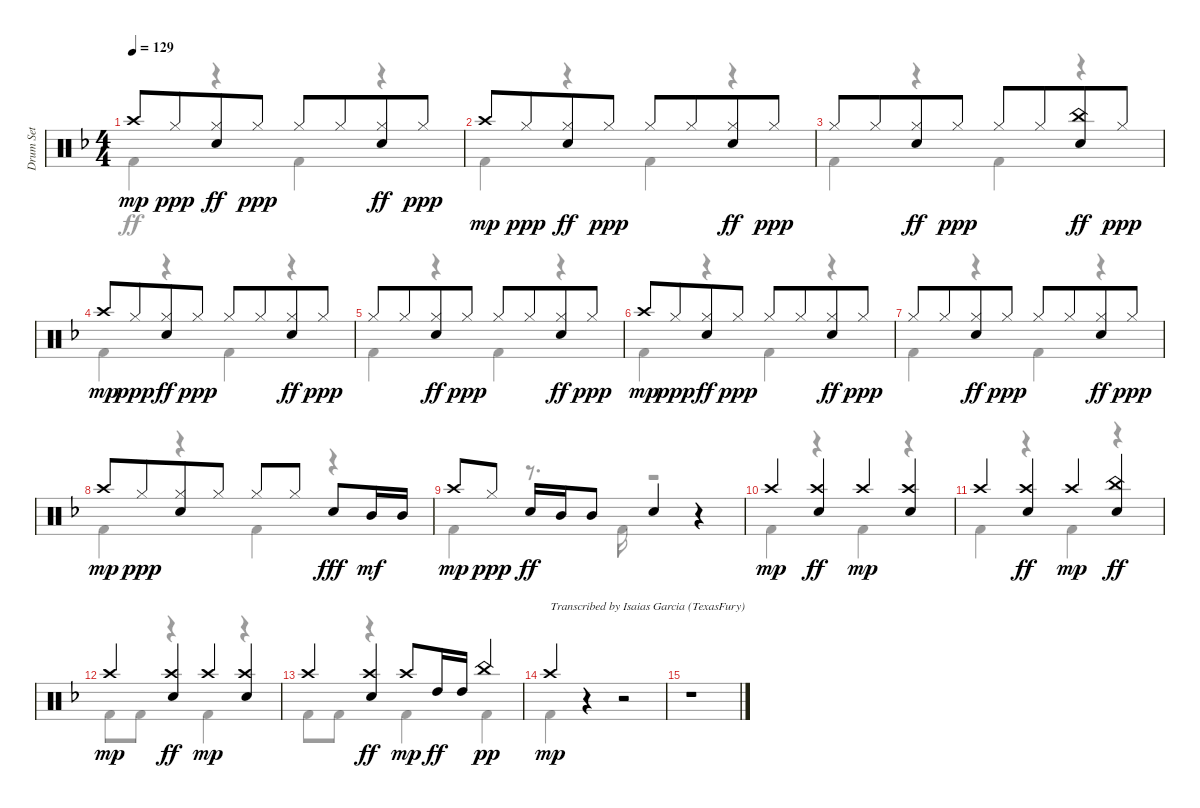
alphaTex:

\track ("Drum Set" "Drum Set") {instrument percussion}
\staff {score}
\articulation defaults
\voice
\ts (4 4)
\tempo 129
\clef neutral
\ks dminor "Crash high (hit)".8{dy mp} "Hi-Hat (closed)".8{dy ppp beam merge}
("Hi-Hat (closed)" "Electric Snare (hit)").8{dy ff} "Hi-Hat (closed)".8{dy ppp} "Hi-Hat (closed)".8 "Hi-Hat (closed)".8{beam merge} ("Hi-Hat (closed)" "Electric Snare (hit)").8{dy ff} "Hi-Hat (closed)".8{dy ppp} |
"Crash high (hit)".8{dy mp} "Hi-Hat (closed)".8{dy ppp beam merge} ("Hi-Hat (closed)" "Electric Snare (hit)").8{dy ff} "Hi-Hat (closed)".8{dy ppp} "Hi-Hat (closed)".8 "Hi-Hat (closed)".8{beam merge} ("Hi-Hat (closed)" "Electric Snare (hit)").8{dy ff} "Hi-Hat (closed)".8{dy ppp} |
"Hi-Hat (closed)".8 "Hi-Hat (closed)".8{beam merge} ("Hi-Hat (closed)" "Electric Snare (hit)").8{dy ff} "Hi-Hat (closed)".8{dy ppp} "Hi-Hat (closed)".8 "Hi-Hat (closed)".8{beam merge} ("China (hit)" "Electric Snare (hit)").8{dy ff} "Hi-Hat (closed)".8{dy ppp} |
"Crash high (hit)".8{dy mp} "Hi-Hat (closed)".8{dy ppp beam merge} ("Hi-Hat (closed)" "Electric Snare (hit)").8{dy ff} "Hi-Hat (closed)".8{dy ppp} "Hi-Hat (closed)".8 "Hi-Hat (closed)".8{beam merge} ("Hi-Hat (closed)" "Electric Snare (hit)").8{dy ff} "Hi-Hat (closed)".8{dy ppp} |
"Hi-Hat (closed)".8 "Hi-Hat (closed)".8{beam merge} ("Hi-Hat (closed)" "Electric Snare (hit)").8{dy ff} "Hi-Hat (closed)".8{dy ppp} "Hi-Hat (closed)".8 "Hi-Hat (closed)".8{beam merge} ("Hi-Hat (closed)" "Electric Snare (hit)").8{dy ff} "Hi-Hat (closed)".8{dy ppp} |
"Crash high (hit)".8{dy mp} "Hi-Hat (closed)".8{dy ppp beam merge} ("Hi-Hat (closed)" "Electric Snare (hit)").8{dy ff} "Hi-Hat (closed)".8{dy ppp} "Hi-Hat (closed)".8 "Hi-Hat (closed)".8{beam merge} ("Hi-Hat (closed)" "Electric Snare (hit)").8{dy ff} "Hi-Hat (closed)".8{dy ppp} |
"Hi-Hat (closed)".8 "Hi-Hat (closed)".8{beam merge} ("Hi-Hat (closed)" "Electric Snare (hit)").8{dy ff} "Hi-Hat (closed)".8{dy ppp} "Hi-Hat (closed)".8 "Hi-Hat (closed)".8{beam merge} ("Hi-Hat (closed)" "Electric Snare (hit)").8{dy ff} "Hi-Hat (closed)".8{dy ppp} |
"Crash high (hit)".8{dy mp} "Hi-Hat (closed)".8{dy ppp beam merge} ("Electric Snare (hit)" "Hi-Hat (closed)").8 "Hi-Hat (closed)".8 "Hi-Hat (closed)".8 "Hi-Hat (closed)".8 "Electric Snare (hit)".8{dy fff} "Mid Tom (hit)".16{dy mf} "Mid Tom (hit)".16 |
"Crash high (hit)".8{dy mp} "Hi-Hat (closed)".8{dy ppp} "Electric Snare (hit)".16{dy ff} "Mid Tom (hit)".16 "Mid Tom (hit)".8 "Electric Snare (hit)".4 r.4 |
"Crash high (hit)".4{dy mp} ("Crash high (hit)" "Electric Snare (hit)").4{dy ff} "Crash high (hit)".4{dy mp} ("Electric Snare (hit)" "Crash high (hit)").4 |
"Crash high (hit)".4 ("Crash high (hit)" "Electric Snare (hit)").4{dy ff} "Crash high (hit)".4{dy mp} ("China (hit)" "Electric Snare (hit)").4{dy ff} |
"Crash high (hit)".4{dy mp} ("Crash high (hit)" "Electric Snare (hit)").4{dy ff} "Crash high (hit)".4{dy mp} ("Electric Snare (hit)" "Crash high (hit)").4 |
"Crash high (hit)".4 ("Crash high (hit)" "Electric Snare (hit)").4{dy ff} "Crash high (hit)".8{dy mp} "High Tom (hit)".16{dy ff} "High Tom (hit)".16 "China (hit)".4{dy pp} |
"Crash high (hit)".4{txt "Transcribed by Isaias Garcia (TexasFury)" dy mp volume 0} r.4 r.2 |
r.1
\voice
\clef neutral
\ottava regular
\simile none
\ks dminor "Kick (hit) 2".4{dy ff}
r.4 "Kick (hit) 2".4 r.4 |
"Kick (hit) 2".4 r.4 "Kick (hit) 2".4 r.4 |
"Kick (hit) 2".4 r.4 "Kick (hit) 2".4 r.4 |
"Kick (hit) 2".4 r.4 "Kick (hit) 2".4 r.4 |
"Kick (hit) 2".4 r.4 "Kick (hit) 2".4 r.4 |
"Kick (hit) 2".4 r.4 "Kick (hit) 2".4 r.4 |
"Kick (hit) 2".4 r.4 "Kick (hit) 2".4 r.4 |
"Kick (hit) 2".4 r.4 "Kick (hit) 2".4 r.4 |
"Kick (hit) 2".4 r.8{d} "Kick (hit) 2".16 r.2 |
"Kick (hit) 2".4 r.4 "Kick (hit) 2".4 r.4 |
"Kick (hit) 2".4 r.4 "Kick (hit) 2".4 r.4 |
"Kick (hit) 2".8 "Kick (hit) 2".8 r.4 "Kick (hit) 2".4 r.4 |
"Kick (hit) 2".8 "Kick (hit) 2".8 r.4 "Kick (hit) 2".4 "Kick (hit) 2".4 |
"Kick (hit) 2".4 r.4 r.2 |
r.1
